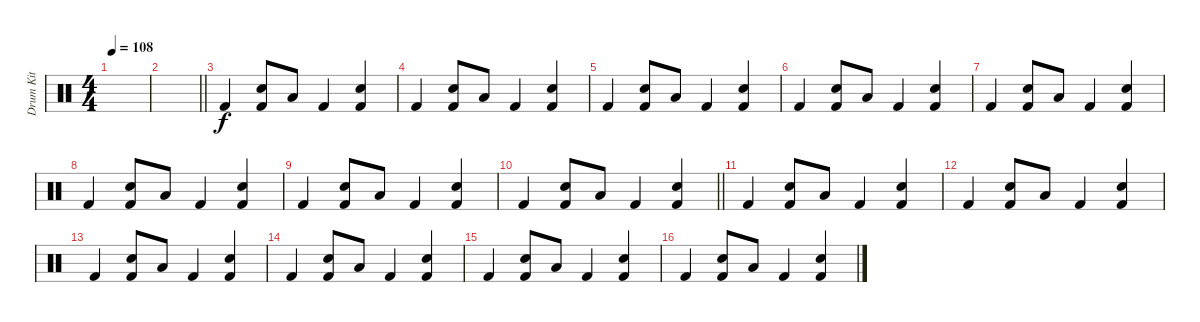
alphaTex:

\track ("Drum Kit" "Drum Kit") {instrument percussion}
\staff {score}
\articulation defaults
\ts (4 4)
\section ("" "")
\tempo 108
\clef neutral
\ks c
|
\barLineRight lightlight
|
\section ("" "")
"Kick (hit) 2".4 ("Electric Snare (hit)" "Kick (hit) 2").8 "Low Floor Tom (hit)".8 "Kick (hit) 2".4 ("Electric Snare (hit)" "Kick (hit) 2").4 |
"Kick (hit) 2".4 ("Electric Snare (hit)" "Kick (hit) 2").8 "Low Floor Tom (hit)".8 "Kick (hit) 2".4 ("Electric Snare (hit)" "Kick (hit) 2").4 |
"Kick (hit) 2".4 ("Electric Snare (hit)" "Kick (hit) 2").8 "Low Floor Tom (hit)".8 "Kick (hit) 2".4 ("Electric Snare (hit)" "Kick (hit) 2").4 |
"Kick (hit) 2".4 ("Electric Snare (hit)" "Kick (hit) 2").8 "Low Floor Tom (hit)".8 "Kick (hit) 2".4 ("Electric Snare (hit)" "Kick (hit) 2").4 |
"Kick (hit) 2".4 ("Electric Snare (hit)" "Kick (hit) 2").8 "Low Floor Tom (hit)".8 "Kick (hit) 2".4 ("Electric Snare (hit)" "Kick (hit) 2").4 |
"Kick (hit) 2".4 ("Electric Snare (hit)" "Kick (hit) 2").8 "Low Floor Tom (hit)".8 "Kick (hit) 2".4 ("Electric Snare (hit)" "Kick (hit) 2").4 |
"Kick (hit) 2".4 ("Electric Snare (hit)" "Kick (hit) 2").8 "Low Floor Tom (hit)".8 "Kick (hit) 2".4 ("Electric Snare (hit)" "Kick (hit) 2").4 |
\barLineRight lightlight "Kick (hit) 2".4
("Electric Snare (hit)" "Kick (hit) 2").8 "Low Floor Tom (hit)".8 "Kick (hit) 2".4 ("Electric Snare (hit)" "Kick (hit) 2").4 |
\section ("" "")
"Kick (hit) 2".4 ("Electric Snare (hit)" "Kick (hit) 2").8 "Low Floor Tom (hit)".8 "Kick (hit) 2".4 ("Electric Snare (hit)" "Kick (hit) 2").4 |
"Kick (hit) 2".4 ("Electric Snare (hit)" "Kick (hit) 2").8 "Low Floor Tom (hit)".8 "Kick (hit) 2".4 ("Electric Snare (hit)" "Kick (hit) 2").4 |
"Kick (hit) 2".4 ("Electric Snare (hit)" "Kick (hit) 2").8 "Low Floor Tom (hit)".8 "Kick (hit) 2".4 ("Electric Snare (hit)" "Kick (hit) 2").4 |
"Kick (hit) 2".4 ("Electric Snare (hit)" "Kick (hit) 2").8 "Low Floor Tom (hit)".8 "Kick (hit) 2".4 ("Electric Snare (hit)" "Kick (hit) 2").4 |
"Kick (hit) 2".4 ("Electric Snare (hit)" "Kick (hit) 2").8 "Low Floor Tom (hit)".8 "Kick (hit) 2".4 ("Electric Snare (hit)" "Kick (hit) 2").4 |
"Kick (hit) 2".4 ("Electric Snare (hit)" "Kick (hit) 2").8 "Low Floor Tom (hit)".8 "Kick (hit) 2".4 ("Electric Snare (hit)" "Kick (hit) 2").4
